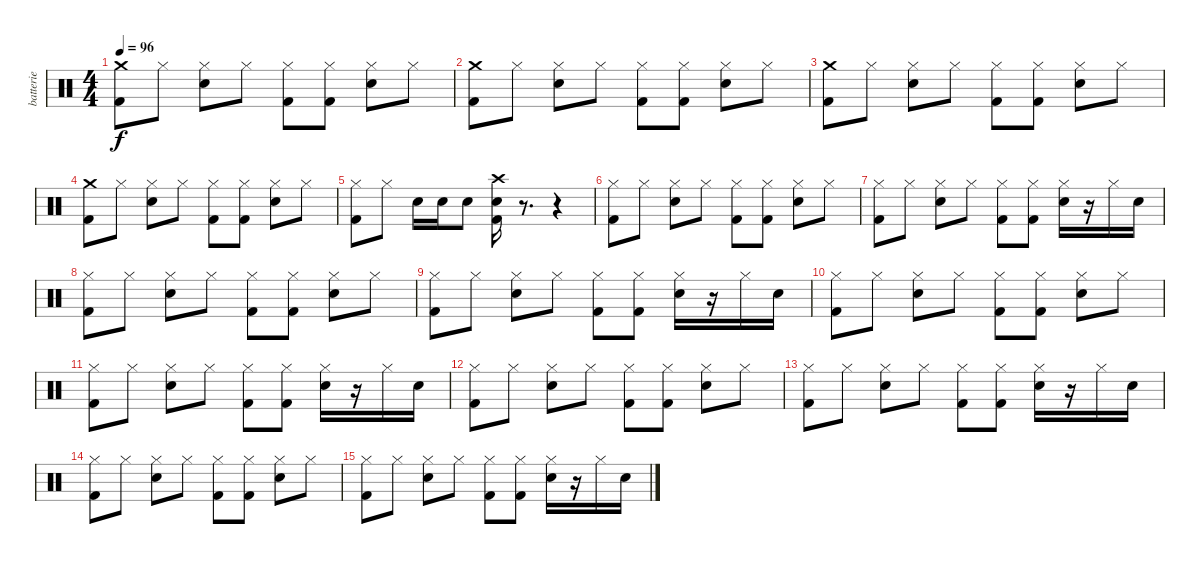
\track ("batterie" "batterie") {instrument percussion}
\staff {score}
\articulation defaults
\ts (4 4)
\tempo 96
\clef neutral
\ks c
("Crash medium (hit)" "Kick (hit) 2").8{dy f} "Hi-Hat (closed)".8 ("Hi-Hat (closed)" "Electric Snare (hit)").8 "Hi-Hat (closed)".8 ("Hi-Hat (closed)" "Kick (hit) 2").8 ("Hi-Hat (closed)" "Kick (hit) 2").8 ("Hi-Hat (closed)" "Electric Snare (hit)").8 "Hi-Hat (closed)".8 |
("Crash medium (hit)" "Kick (hit) 2").8 "Hi-Hat (closed)".8 ("Hi-Hat (closed)" "Electric Snare (hit)").8 "Hi-Hat (closed)".8 ("Hi-Hat (closed)" "Kick (hit) 2").8 ("Hi-Hat (closed)" "Kick (hit) 2").8 ("Hi-Hat (closed)" "Electric Snare (hit)").8 "Hi-Hat (closed)".8 |
("Crash medium (hit)" "Kick (hit) 2").8 "Hi-Hat (closed)".8 ("Hi-Hat (closed)" "Electric Snare (hit)").8 "Hi-Hat (closed)".8 ("Hi-Hat (closed)" "Kick (hit) 2").8 ("Hi-Hat (closed)" "Kick (hit) 2").8 ("Hi-Hat (closed)" "Electric Snare (hit)").8 "Hi-Hat (closed)".8 |
("Crash medium (hit)" "Kick (hit) 2").8 "Hi-Hat (closed)".8 ("Hi-Hat (closed)" "Electric Snare (hit)").8 "Hi-Hat (closed)".8 ("Hi-Hat (closed)" "Kick (hit) 2").8 ("Hi-Hat (closed)" "Kick (hit) 2").8 ("Hi-Hat (closed)" "Electric Snare (hit)").8 "Hi-Hat (closed)".8 |
("Hi-Hat (closed)" "Kick (hit) 2").8 "Hi-Hat (closed)".8 "Electric Snare (hit)".16 "Electric Snare (hit)".16 "Electric Snare (hit)".8 ("Crash high (hit)" "Electric Snare (hit)" "Kick (hit) 2").16 r.8{d} r.4 |
("Hi-Hat (closed)" "Kick (hit) 2").8 "Hi-Hat (closed)".8 ("Hi-Hat (closed)" "Electric Snare (hit)").8 "Hi-Hat (closed)".8 ("Hi-Hat (closed)" "Kick (hit) 2").8 ("Hi-Hat (closed)" "Kick (hit) 2").8 ("Hi-Hat (closed)" "Electric Snare (hit)").8 "Hi-Hat (closed)".8 |
("Hi-Hat (closed)" "Kick (hit) 2").8 "Hi-Hat (closed)".8 ("Hi-Hat (closed)" "Electric Snare (hit)").8 "Hi-Hat (closed)".8 ("Hi-Hat (closed)" "Kick (hit) 2").8 ("Hi-Hat (closed)" "Kick (hit) 2").8 ("Hi-Hat (closed)" "Electric Snare (hit)").16 r.16 "Hi-Hat (closed)".16 "Electric Snare (hit)".16 |
("Hi-Hat (closed)" "Kick (hit) 2").8 "Hi-Hat (closed)".8 ("Hi-Hat (closed)" "Electric Snare (hit)").8 "Hi-Hat (closed)".8 ("Hi-Hat (closed)" "Kick (hit) 2").8 ("Hi-Hat (closed)" "Kick (hit) 2").8 ("Hi-Hat (closed)" "Electric Snare (hit)").8 "Hi-Hat (closed)".8 |
("Hi-Hat (closed)" "Kick (hit) 2").8 "Hi-Hat (closed)".8 ("Hi-Hat (closed)" "Electric Snare (hit)").8 "Hi-Hat (closed)".8 ("Hi-Hat (closed)" "Kick (hit) 2").8 ("Hi-Hat (closed)" "Kick (hit) 2").8 ("Hi-Hat (closed)" "Electric Snare (hit)").16 r.16 "Hi-Hat (closed)".16 "Electric Snare (hit)".16 |
("Hi-Hat (closed)" "Kick (hit) 2").8 "Hi-Hat (closed)".8 ("Hi-Hat (closed)" "Electric Snare (hit)").8 "Hi-Hat (closed)".8 ("Hi-Hat (closed)" "Kick (hit) 2").8 ("Hi-Hat (closed)" "Kick (hit) 2").8 ("Hi-Hat (closed)" "Electric Snare (hit)").8 "Hi-Hat (closed)".8 |
("Hi-Hat (closed)" "Kick (hit) 2").8 "Hi-Hat (closed)".8 ("Hi-Hat (closed)" "Electric Snare (hit)").8 "Hi-Hat (closed)".8 ("Hi-Hat (closed)" "Kick (hit) 2").8 ("Hi-Hat (closed)" "Kick (hit) 2").8 ("Hi-Hat (closed)" "Electric Snare (hit)").16 r.16 "Hi-Hat (closed)".16 "Electric Snare (hit)".16 |
("Hi-Hat (closed)" "Kick (hit) 2").8 "Hi-Hat (closed)".8 ("Hi-Hat (closed)" "Electric Snare (hit)").8 "Hi-Hat (closed)".8 ("Hi-Hat (closed)" "Kick (hit) 2").8 ("Hi-Hat (closed)" "Kick (hit) 2").8 ("Hi-Hat (closed)" "Electric Snare (hit)").8 "Hi-Hat (closed)".8 |
("Hi-Hat (closed)" "Kick (hit) 2").8 "Hi-Hat (closed)".8 ("Hi-Hat (closed)" "Electric Snare (hit)").8 "Hi-Hat (closed)".8 ("Hi-Hat (closed)" "Kick (hit) 2").8 ("Hi-Hat (closed)" "Kick (hit) 2").8 ("Hi-Hat (closed)" "Electric Snare (hit)").16 r.16 "Hi-Hat (closed)".16 "Electric Snare (hit)".16 |
("Hi-Hat (closed)" "Kick (hit) 2").8 "Hi-Hat (closed)".8 ("Hi-Hat (closed)" "Electric Snare (hit)").8 "Hi-Hat (closed)".8 ("Hi-Hat (closed)" "Kick (hit) 2").8 ("Hi-Hat (closed)" "Kick (hit) 2").8 ("Hi-Hat (closed)" "Electric Snare (hit)").8 "Hi-Hat (closed)".8 |
("Hi-Hat (closed)" "Kick (hit) 2").8 "Hi-Hat (closed)".8 ("Hi-Hat (closed)" "Electric Snare (hit)").8 "Hi-Hat (closed)".8 ("Hi-Hat (closed)" "Kick (hit) 2").8 ("Hi-Hat (closed)" "Kick (hit) 2").8 ("Hi-Hat (closed)" "Electric Snare (hit)").16 r.16 "Hi-Hat (closed)".16 "Electric Snare (hit)".16
